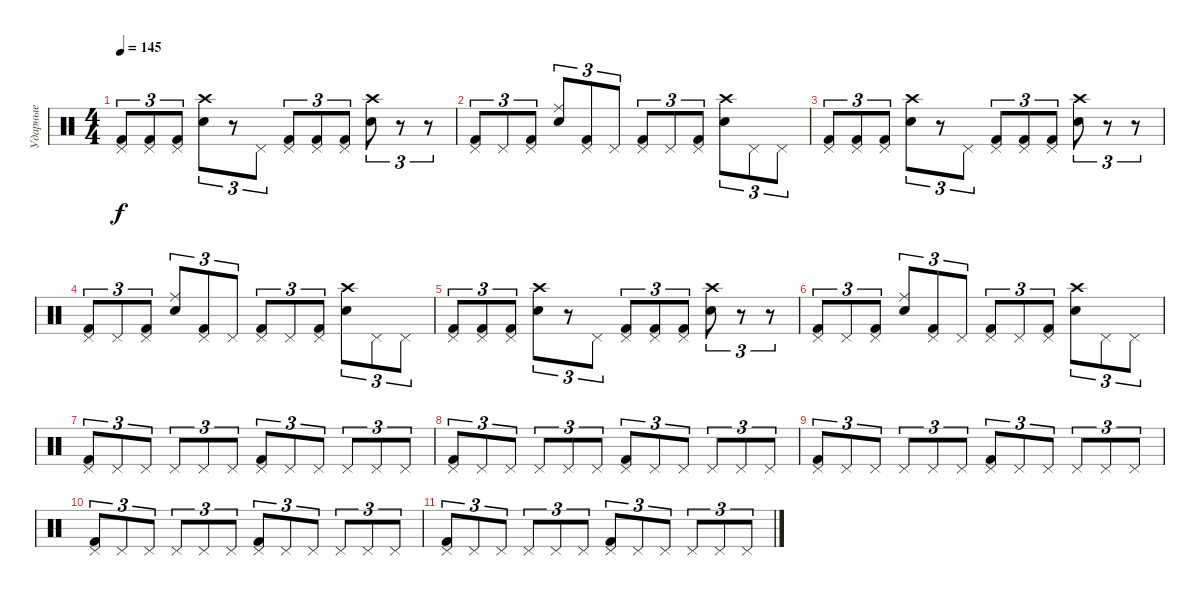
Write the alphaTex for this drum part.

\track ("Ударные" "Ударные") {instrument percussion}
\staff {score}
\articulation defaults
\ts (4 4)
\tempo 145
\clef neutral
\ks c
("Kick (hit) 2" "Pedal Hi-Hat (hit)").8{tu (3 2) dy f} ("Kick (hit) 2" "Pedal Hi-Hat (hit)").8{tu (3 2)} ("Kick (hit) 2" "Pedal Hi-Hat (hit)").8{tu (3 2)} ("Crash high (hit)" "Electric Snare (hit)").8{tu (3 2)} r.8{tu (3 2)} "Pedal Hi-Hat (hit)".8{tu (3 2)} ("Kick (hit) 2" "Pedal Hi-Hat (hit)").8{tu (3 2)} ("Kick (hit) 2" "Pedal Hi-Hat (hit)").8{tu (3 2)} ("Kick (hit) 2" "Pedal Hi-Hat (hit)").8{tu (3 2)} ("Electric Snare (hit)" "Crash high (hit)").8{tu (3 2)} r.8{tu (3 2)} r.8{tu (3 2)} |
("Kick (hit) 2" "Pedal Hi-Hat (hit)").8{tu (3 2)} "Pedal Hi-Hat (hit)".8{tu (3 2)} ("Kick (hit) 2" "Pedal Hi-Hat (hit)").8{tu (3 2)} ("Electric Snare (hit)" "Ride (middle)").8{tu (3 2)} ("Kick (hit) 2" "Pedal Hi-Hat (hit)").8{tu (3 2)} "Pedal Hi-Hat (hit)".8{tu (3 2)} ("Kick (hit) 2" "Pedal Hi-Hat (hit)").8{tu (3 2)} "Pedal Hi-Hat (hit)".8{tu (3 2)} ("Pedal Hi-Hat (hit)" "Kick (hit) 2").8{tu (3 2)} ("Electric Snare (hit)" "Crash high (hit)").8{tu (3 2)} "Pedal Hi-Hat (hit)".8{tu (3 2)} "Pedal Hi-Hat (hit)".8{tu (3 2)} |
("Kick (hit) 2" "Pedal Hi-Hat (hit)").8{tu (3 2)} ("Kick (hit) 2" "Pedal Hi-Hat (hit)").8{tu (3 2)} ("Kick (hit) 2" "Pedal Hi-Hat (hit)").8{tu (3 2)} ("Crash high (hit)" "Electric Snare (hit)").8{tu (3 2)} r.8{tu (3 2)} "Pedal Hi-Hat (hit)".8{tu (3 2)} ("Kick (hit) 2" "Pedal Hi-Hat (hit)").8{tu (3 2)} ("Kick (hit) 2" "Pedal Hi-Hat (hit)").8{tu (3 2)} ("Kick (hit) 2" "Pedal Hi-Hat (hit)").8{tu (3 2)} ("Electric Snare (hit)" "Crash high (hit)").8{tu (3 2)} r.8{tu (3 2)} r.8{tu (3 2)} |
("Kick (hit) 2" "Pedal Hi-Hat (hit)").8{tu (3 2)} "Pedal Hi-Hat (hit)".8{tu (3 2)} ("Kick (hit) 2" "Pedal Hi-Hat (hit)").8{tu (3 2)} ("Electric Snare (hit)" "Ride (middle)").8{tu (3 2)} ("Kick (hit) 2" "Pedal Hi-Hat (hit)").8{tu (3 2)} "Pedal Hi-Hat (hit)".8{tu (3 2)} ("Kick (hit) 2" "Pedal Hi-Hat (hit)").8{tu (3 2)} "Pedal Hi-Hat (hit)".8{tu (3 2)} ("Pedal Hi-Hat (hit)" "Kick (hit) 2").8{tu (3 2)} ("Electric Snare (hit)" "Crash high (hit)").8{tu (3 2)} "Pedal Hi-Hat (hit)".8{tu (3 2)} "Pedal Hi-Hat (hit)".8{tu (3 2)} |
("Kick (hit) 2" "Pedal Hi-Hat (hit)").8{tu (3 2)} ("Kick (hit) 2" "Pedal Hi-Hat (hit)").8{tu (3 2)} ("Kick (hit) 2" "Pedal Hi-Hat (hit)").8{tu (3 2)} ("Crash high (hit)" "Electric Snare (hit)").8{tu (3 2)} r.8{tu (3 2)} "Pedal Hi-Hat (hit)".8{tu (3 2)} ("Kick (hit) 2" "Pedal Hi-Hat (hit)").8{tu (3 2)} ("Kick (hit) 2" "Pedal Hi-Hat (hit)").8{tu (3 2)} ("Kick (hit) 2" "Pedal Hi-Hat (hit)").8{tu (3 2)} ("Electric Snare (hit)" "Crash high (hit)").8{tu (3 2)} r.8{tu (3 2)} r.8{tu (3 2)} |
("Kick (hit) 2" "Pedal Hi-Hat (hit)").8{tu (3 2)} "Pedal Hi-Hat (hit)".8{tu (3 2)} ("Kick (hit) 2" "Pedal Hi-Hat (hit)").8{tu (3 2)} ("Electric Snare (hit)" "Ride (middle)").8{tu (3 2)} ("Kick (hit) 2" "Pedal Hi-Hat (hit)").8{tu (3 2)} "Pedal Hi-Hat (hit)".8{tu (3 2)} ("Kick (hit) 2" "Pedal Hi-Hat (hit)").8{tu (3 2)} "Pedal Hi-Hat (hit)".8{tu (3 2)} ("Pedal Hi-Hat (hit)" "Kick (hit) 2").8{tu (3 2)} ("Electric Snare (hit)" "Crash high (hit)").8{tu (3 2)} "Pedal Hi-Hat (hit)".8{tu (3 2)} "Pedal Hi-Hat (hit)".8{tu (3 2)} |
("Kick (hit) 2" "Pedal Hi-Hat (hit)").8{tu (3 2)} "Pedal Hi-Hat (hit)".8{tu (3 2)} "Pedal Hi-Hat (hit)".8{tu (3 2)} "Pedal Hi-Hat (hit)".8{tu (3 2)} "Pedal Hi-Hat (hit)".8{tu (3 2)} "Pedal Hi-Hat (hit)".8{tu (3 2)} ("Kick (hit) 2" "Pedal Hi-Hat (hit)").8{tu (3 2)} "Pedal Hi-Hat (hit)".8{tu (3 2)} "Pedal Hi-Hat (hit)".8{tu (3 2)} "Pedal Hi-Hat (hit)".8{tu (3 2)} "Pedal Hi-Hat (hit)".8{tu (3 2)} "Pedal Hi-Hat (hit)".8{tu (3 2)} |
("Kick (hit) 2" "Pedal Hi-Hat (hit)").8{tu (3 2)} "Pedal Hi-Hat (hit)".8{tu (3 2)} "Pedal Hi-Hat (hit)".8{tu (3 2)} "Pedal Hi-Hat (hit)".8{tu (3 2)} "Pedal Hi-Hat (hit)".8{tu (3 2)} "Pedal Hi-Hat (hit)".8{tu (3 2)} ("Kick (hit) 2" "Pedal Hi-Hat (hit)").8{tu (3 2)} "Pedal Hi-Hat (hit)".8{tu (3 2)} "Pedal Hi-Hat (hit)".8{tu (3 2)} "Pedal Hi-Hat (hit)".8{tu (3 2)} "Pedal Hi-Hat (hit)".8{tu (3 2)} "Pedal Hi-Hat (hit)".8{tu (3 2)} |
("Kick (hit) 2" "Pedal Hi-Hat (hit)").8{tu (3 2)} "Pedal Hi-Hat (hit)".8{tu (3 2)} "Pedal Hi-Hat (hit)".8{tu (3 2)} "Pedal Hi-Hat (hit)".8{tu (3 2)} "Pedal Hi-Hat (hit)".8{tu (3 2)} "Pedal Hi-Hat (hit)".8{tu (3 2)} ("Kick (hit) 2" "Pedal Hi-Hat (hit)").8{tu (3 2)} "Pedal Hi-Hat (hit)".8{tu (3 2)} "Pedal Hi-Hat (hit)".8{tu (3 2)} "Pedal Hi-Hat (hit)".8{tu (3 2)} "Pedal Hi-Hat (hit)".8{tu (3 2)} "Pedal Hi-Hat (hit)".8{tu (3 2)} |
("Kick (hit) 2" "Pedal Hi-Hat (hit)").8{tu (3 2)} "Pedal Hi-Hat (hit)".8{tu (3 2)} "Pedal Hi-Hat (hit)".8{tu (3 2)} "Pedal Hi-Hat (hit)".8{tu (3 2)} "Pedal Hi-Hat (hit)".8{tu (3 2)} "Pedal Hi-Hat (hit)".8{tu (3 2)} ("Kick (hit) 2" "Pedal Hi-Hat (hit)").8{tu (3 2)} "Pedal Hi-Hat (hit)".8{tu (3 2)} "Pedal Hi-Hat (hit)".8{tu (3 2)} "Pedal Hi-Hat (hit)".8{tu (3 2)} "Pedal Hi-Hat (hit)".8{tu (3 2)} "Pedal Hi-Hat (hit)".8{tu (3 2)} |
("Kick (hit) 2" "Pedal Hi-Hat (hit)").8{tu (3 2)} "Pedal Hi-Hat (hit)".8{tu (3 2)} "Pedal Hi-Hat (hit)".8{tu (3 2)} "Pedal Hi-Hat (hit)".8{tu (3 2)} "Pedal Hi-Hat (hit)".8{tu (3 2)} "Pedal Hi-Hat (hit)".8{tu (3 2)} ("Kick (hit) 2" "Pedal Hi-Hat (hit)").8{tu (3 2)} "Pedal Hi-Hat (hit)".8{tu (3 2)} "Pedal Hi-Hat (hit)".8{tu (3 2)} "Pedal Hi-Hat (hit)".8{tu (3 2)} "Pedal Hi-Hat (hit)".8{tu (3 2)} "Pedal Hi-Hat (hit)".8{tu (3 2)}
